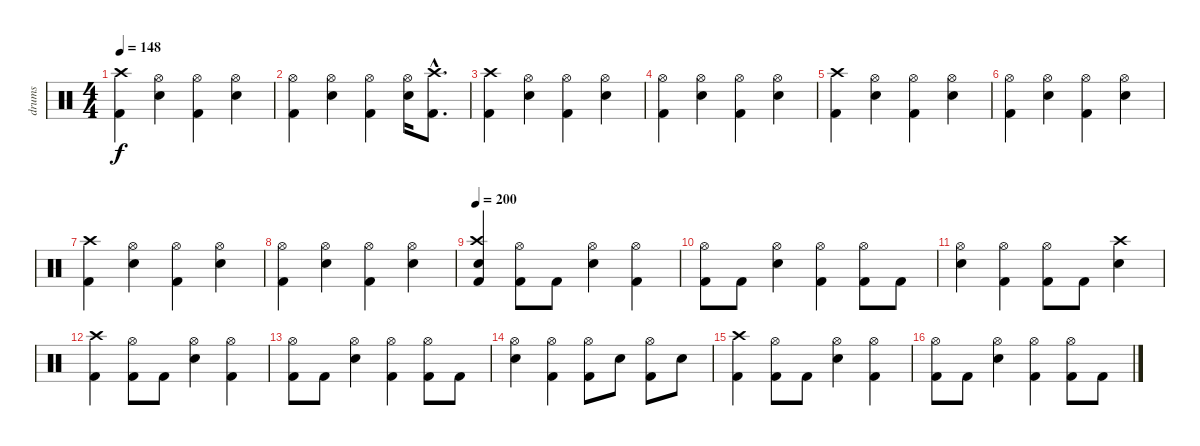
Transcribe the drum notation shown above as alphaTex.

\track ("drums" "drums") {instrument percussion}
\staff {score}
\articulation defaults
\ts (4 4)
\tempo 148
\clef neutral
\ks c
("Kick (hit) 2" "Crash high (hit)").4{dy f} ("Snare (hit) 2" "Hi-Hat (open)").4 ("Kick (hit) 2" "Hi-Hat (open)").4 ("Snare (hit) 2" "Hi-Hat (open)").4 |
("Kick (hit) 2" "Hi-Hat (open)").4 ("Snare (hit) 2" "Hi-Hat (open)").4 ("Kick (hit) 2" "Hi-Hat (open)").4 ("Snare (hit) 2" "Hi-Hat (open)").16 ("Kick (hit) 2"{hac} "Crash high (hit)"{hac}).8{d} |
("Kick (hit) 2" "Crash high (hit)").4 ("Snare (hit) 2" "Hi-Hat (open)").4 ("Kick (hit) 2" "Hi-Hat (open)").4 ("Snare (hit) 2" "Hi-Hat (open)").4 |
("Kick (hit) 2" "Hi-Hat (open)").4 ("Snare (hit) 2" "Hi-Hat (open)").4 ("Kick (hit) 2" "Hi-Hat (open)").4 ("Snare (hit) 2" "Hi-Hat (open)").4 |
("Kick (hit) 2" "Crash high (hit)").4 ("Snare (hit) 2" "Hi-Hat (open)").4 ("Kick (hit) 2" "Hi-Hat (open)").4 ("Snare (hit) 2" "Hi-Hat (open)").4 |
("Kick (hit) 2" "Hi-Hat (open)").4 ("Snare (hit) 2" "Hi-Hat (open)").4 ("Kick (hit) 2" "Hi-Hat (open)").4 ("Snare (hit) 2" "Hi-Hat (open)").4 |
("Kick (hit) 2" "Crash high (hit)").4 ("Snare (hit) 2" "Hi-Hat (open)").4 ("Kick (hit) 2" "Hi-Hat (open)").4 ("Snare (hit) 2" "Hi-Hat (open)").4 |
("Kick (hit) 2" "Hi-Hat (open)").4 ("Snare (hit) 2" "Hi-Hat (open)").4 ("Kick (hit) 2" "Hi-Hat (open)").4 ("Snare (hit) 2" "Hi-Hat (open)").4 |
\tempo 200
("Kick (hit) 2" "Snare (hit) 2" "Crash high (hit)").4 ("Kick (hit) 2" "Hi-Hat (open)").8 "Kick (hit) 2".8 ("Snare (hit) 2" "Hi-Hat (open)").4 ("Kick (hit) 2" "Hi-Hat (open)").4 |
("Kick (hit) 2" "Hi-Hat (open)").8 "Kick (hit) 2".8 ("Snare (hit) 2" "Hi-Hat (open)").4 ("Kick (hit) 2" "Hi-Hat (open)").4 ("Kick (hit) 2" "Hi-Hat (open)").8 "Kick (hit) 2".8 |
("Snare (hit) 2" "Hi-Hat (open)").4 ("Kick (hit) 2" "Hi-Hat (open)").4 ("Kick (hit) 2" "Hi-Hat (open)").8 "Kick (hit) 2".8 ("Snare (hit) 2" "Crash high (hit)").4 |
("Kick (hit) 2" "Crash high (hit)").4 ("Kick (hit) 2" "Hi-Hat (open)").8 "Kick (hit) 2".8 ("Snare (hit) 2" "Hi-Hat (open)").4 ("Kick (hit) 2" "Hi-Hat (open)").4 |
("Kick (hit) 2" "Hi-Hat (open)").8 "Kick (hit) 2".8 ("Snare (hit) 2" "Hi-Hat (open)").4 ("Kick (hit) 2" "Hi-Hat (open)").4 ("Kick (hit) 2" "Hi-Hat (open)").8 "Kick (hit) 2".8 |
("Snare (hit) 2" "Hi-Hat (open)").4 ("Kick (hit) 2" "Hi-Hat (open)").4 ("Kick (hit) 2" "Hi-Hat (open)").8 "Snare (hit) 2".8 ("Kick (hit) 2" "Hi-Hat (open)").8 "Snare (hit) 2".8 |
("Kick (hit) 2" "Crash high (hit)").4 ("Kick (hit) 2" "Hi-Hat (open)").8 "Kick (hit) 2".8 ("Snare (hit) 2" "Hi-Hat (open)").4 ("Kick (hit) 2" "Hi-Hat (open)").4 |
("Kick (hit) 2" "Hi-Hat (open)").8 "Kick (hit) 2".8 ("Snare (hit) 2" "Hi-Hat (open)").4 ("Kick (hit) 2" "Hi-Hat (open)").4 ("Kick (hit) 2" "Hi-Hat (open)").8 "Kick (hit) 2".8
